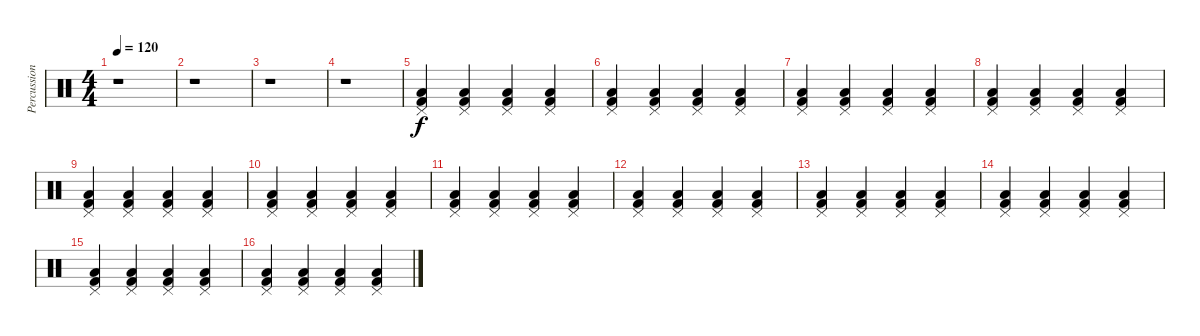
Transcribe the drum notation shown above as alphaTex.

\track ("Percussions" "Percussion") {instrument percussion}
\staff {score}
\articulation defaults
\ts (4 4)
\tempo 120
\clef neutral
\ks c
r.1{dy f} |
r.1 |
r.1 |
r.1 |
("Pedal Hi-Hat (hit)" "Low Floor Tom (hit)" "Kick (hit) 2").4 ("Pedal Hi-Hat (hit)" "Low Floor Tom (hit)" "Kick (hit) 2").4 ("Pedal Hi-Hat (hit)" "Low Floor Tom (hit)" "Kick (hit) 2").4 ("Pedal Hi-Hat (hit)" "Low Floor Tom (hit)" "Kick (hit) 2").4 |
("Pedal Hi-Hat (hit)" "Low Floor Tom (hit)" "Kick (hit) 2").4 ("Pedal Hi-Hat (hit)" "Low Floor Tom (hit)" "Kick (hit) 2").4 ("Pedal Hi-Hat (hit)" "Low Floor Tom (hit)" "Kick (hit) 2").4 ("Pedal Hi-Hat (hit)" "Low Floor Tom (hit)" "Kick (hit) 2").4 |
("Pedal Hi-Hat (hit)" "Low Floor Tom (hit)" "Kick (hit) 2").4 ("Pedal Hi-Hat (hit)" "Low Floor Tom (hit)" "Kick (hit) 2").4 ("Pedal Hi-Hat (hit)" "Low Floor Tom (hit)" "Kick (hit) 2").4 ("Pedal Hi-Hat (hit)" "Low Floor Tom (hit)" "Kick (hit) 2").4 |
("Pedal Hi-Hat (hit)" "Low Floor Tom (hit)" "Kick (hit) 2").4 ("Pedal Hi-Hat (hit)" "Low Floor Tom (hit)" "Kick (hit) 2").4 ("Pedal Hi-Hat (hit)" "Low Floor Tom (hit)" "Kick (hit) 2").4 ("Pedal Hi-Hat (hit)" "Low Floor Tom (hit)" "Kick (hit) 2").4 |
("Pedal Hi-Hat (hit)" "Low Floor Tom (hit)" "Kick (hit) 2").4 ("Pedal Hi-Hat (hit)" "Low Floor Tom (hit)" "Kick (hit) 2").4 ("Pedal Hi-Hat (hit)" "Low Floor Tom (hit)" "Kick (hit) 2").4 ("Pedal Hi-Hat (hit)" "Low Floor Tom (hit)" "Kick (hit) 2").4 |
("Pedal Hi-Hat (hit)" "Low Floor Tom (hit)" "Kick (hit) 2").4 ("Pedal Hi-Hat (hit)" "Low Floor Tom (hit)" "Kick (hit) 2").4 ("Pedal Hi-Hat (hit)" "Low Floor Tom (hit)" "Kick (hit) 2").4 ("Pedal Hi-Hat (hit)" "Low Floor Tom (hit)" "Kick (hit) 2").4 |
("Pedal Hi-Hat (hit)" "Low Floor Tom (hit)" "Kick (hit) 2").4 ("Pedal Hi-Hat (hit)" "Low Floor Tom (hit)" "Kick (hit) 2").4 ("Pedal Hi-Hat (hit)" "Low Floor Tom (hit)" "Kick (hit) 2").4 ("Pedal Hi-Hat (hit)" "Low Floor Tom (hit)" "Kick (hit) 2").4 |
("Pedal Hi-Hat (hit)" "Low Floor Tom (hit)" "Kick (hit) 2").4 ("Pedal Hi-Hat (hit)" "Low Floor Tom (hit)" "Kick (hit) 2").4 ("Pedal Hi-Hat (hit)" "Low Floor Tom (hit)" "Kick (hit) 2").4 ("Pedal Hi-Hat (hit)" "Low Floor Tom (hit)" "Kick (hit) 2").4 |
("Pedal Hi-Hat (hit)" "Low Floor Tom (hit)" "Kick (hit) 2").4 ("Pedal Hi-Hat (hit)" "Low Floor Tom (hit)" "Kick (hit) 2").4 ("Pedal Hi-Hat (hit)" "Low Floor Tom (hit)" "Kick (hit) 2").4 ("Pedal Hi-Hat (hit)" "Low Floor Tom (hit)" "Kick (hit) 2").4 |
("Pedal Hi-Hat (hit)" "Low Floor Tom (hit)" "Kick (hit) 2").4 ("Pedal Hi-Hat (hit)" "Low Floor Tom (hit)" "Kick (hit) 2").4 ("Pedal Hi-Hat (hit)" "Low Floor Tom (hit)" "Kick (hit) 2").4 ("Pedal Hi-Hat (hit)" "Low Floor Tom (hit)" "Kick (hit) 2").4 |
("Pedal Hi-Hat (hit)" "Low Floor Tom (hit)" "Kick (hit) 2").4 ("Pedal Hi-Hat (hit)" "Low Floor Tom (hit)" "Kick (hit) 2").4 ("Pedal Hi-Hat (hit)" "Low Floor Tom (hit)" "Kick (hit) 2").4 ("Pedal Hi-Hat (hit)" "Low Floor Tom (hit)" "Kick (hit) 2").4 |
("Pedal Hi-Hat (hit)" "Low Floor Tom (hit)" "Kick (hit) 2").4 ("Pedal Hi-Hat (hit)" "Low Floor Tom (hit)" "Kick (hit) 2").4 ("Pedal Hi-Hat (hit)" "Low Floor Tom (hit)" "Kick (hit) 2").4 ("Pedal Hi-Hat (hit)" "Low Floor Tom (hit)" "Kick (hit) 2").4
